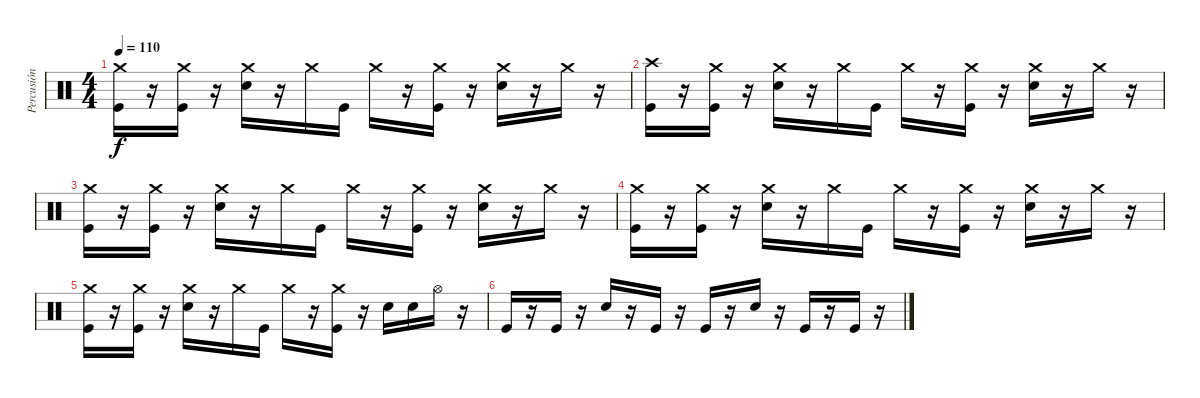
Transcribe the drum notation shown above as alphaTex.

\track ("Percusión" "Percusión") {instrument percussion}
\staff {score}
\articulation defaults
\ts (4 4)
\tempo 110
\clef neutral
\ks c
("Crash medium (hit)" "Kick (hit)").16{dy f} r.16 ("Crash medium (hit)" "Kick (hit)").16 r.16 ("Crash medium (hit)" "Electric Snare (hit)").16 r.16 "Crash medium (hit)".16 "Kick (hit)".16 "Crash medium (hit)".16 r.16 ("Crash medium (hit)" "Kick (hit)").16 r.16 ("Crash medium (hit)" "Electric Snare (hit)").16 r.16 "Crash medium (hit)".16 r.16 |
("Crash high (hit)" "Kick (hit)").16 r.16 ("Crash medium (hit)" "Kick (hit)").16 r.16 ("Crash medium (hit)" "Electric Snare (hit)").16 r.16 "Crash medium (hit)".16 "Kick (hit)".16 "Crash medium (hit)".16 r.16 ("Crash medium (hit)" "Kick (hit)").16 r.16 ("Crash medium (hit)" "Electric Snare (hit)").16 r.16 "Crash medium (hit)".16 r.16 |
("Crash medium (hit)" "Kick (hit)").16 r.16 ("Crash medium (hit)" "Kick (hit)").16 r.16 ("Crash medium (hit)" "Electric Snare (hit)").16 r.16 "Crash medium (hit)".16 "Kick (hit)".16 "Crash medium (hit)".16 r.16 ("Crash medium (hit)" "Kick (hit)").16 r.16 ("Crash medium (hit)" "Electric Snare (hit)").16 r.16 "Crash medium (hit)".16 r.16 |
("Crash medium (hit)" "Kick (hit)").16 r.16 ("Crash medium (hit)" "Kick (hit)").16 r.16 ("Crash medium (hit)" "Electric Snare (hit)").16 r.16 "Crash medium (hit)".16 "Kick (hit)".16 "Crash medium (hit)".16 r.16 ("Crash medium (hit)" "Kick (hit)").16 r.16 ("Crash medium (hit)" "Electric Snare (hit)").16 r.16 "Crash medium (hit)".16 r.16 |
("Crash medium (hit)" "Kick (hit)").16 r.16 ("Crash medium (hit)" "Kick (hit)").16 r.16 ("Crash medium (hit)" "Electric Snare (hit)").16 r.16 "Crash medium (hit)".16 "Kick (hit)".16 "Crash medium (hit)".16 r.16 ("Crash medium (hit)" "Kick (hit)").16 r.16 "Electric Snare (hit)".16 "Electric Snare (hit)".16 "Hi-Hat (open)".16 r.16 |
"Kick (hit)".16 r.16 "Kick (hit)".16 r.16 "Electric Snare (hit)".16 r.16 "Kick (hit)".16 r.16 "Kick (hit)".16 r.16 "Electric Snare (hit)".16 r.16 "Kick (hit)".16 r.16 "Kick (hit)".16 r.16
